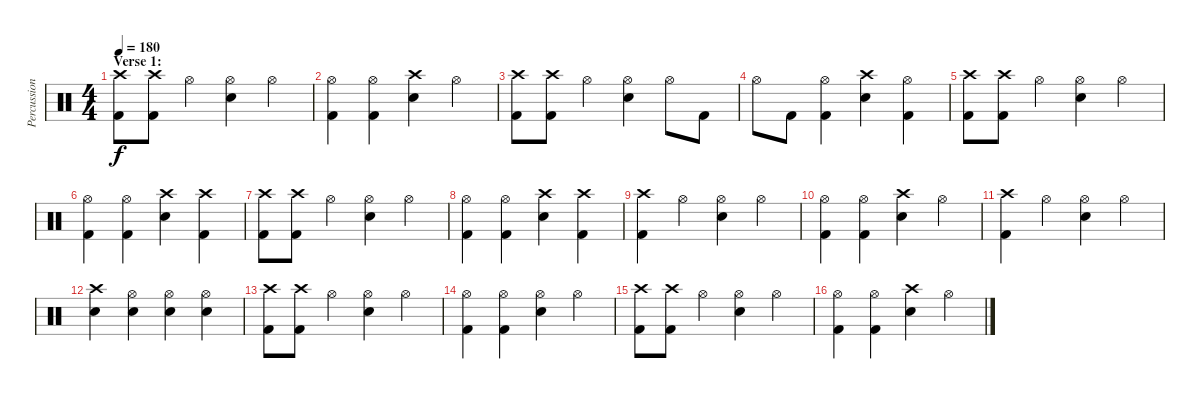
\track ("Percussion" "Percussion") {instrument percussion}
\staff {score}
\articulation defaults
\ts (4 4)
\section ("" "Verse 1:")
\tempo 180
\clef neutral
\ks c
("Crash high (hit)" "Kick (hit) 2").8{dy f} ("Crash high (hit)" "Kick (hit) 2").8 "Hi-Hat (open)".4 ("Hi-Hat (open)" "Snare (hit) 2").4 "Hi-Hat (open)".4 |
("Hi-Hat (open)" "Kick (hit) 2").4 ("Hi-Hat (open)" "Kick (hit) 2").4 ("Crash high (hit)" "Snare (hit) 2").4 "Hi-Hat (open)".4 |
("Crash high (hit)" "Kick (hit) 2").8 ("Crash high (hit)" "Kick (hit) 2").8 "Hi-Hat (open)".4 ("Hi-Hat (open)" "Snare (hit) 2").4 "Hi-Hat (open)".8 "Kick (hit) 2".8 |
"Hi-Hat (open)".8 "Kick (hit) 2".8 ("Hi-Hat (open)" "Kick (hit) 2").4 ("Crash high (hit)" "Snare (hit) 2").4 ("Hi-Hat (open)" "Kick (hit) 2").4 |
("Crash high (hit)" "Kick (hit) 2").8 ("Crash high (hit)" "Kick (hit) 2").8 "Hi-Hat (open)".4 ("Hi-Hat (open)" "Snare (hit) 2").4 "Hi-Hat (open)".4 |
("Hi-Hat (open)" "Kick (hit) 2").4 ("Hi-Hat (open)" "Kick (hit) 2").4 ("Crash high (hit)" "Snare (hit) 2").4 ("Crash high (hit)" "Kick (hit) 2").4 |
("Crash high (hit)" "Kick (hit) 2").8 ("Crash high (hit)" "Kick (hit) 2").8 "Hi-Hat (open)".4 ("Hi-Hat (open)" "Snare (hit) 2").4 "Hi-Hat (open)".4 |
("Hi-Hat (open)" "Kick (hit) 2").4 ("Hi-Hat (open)" "Kick (hit) 2").4 ("Crash high (hit)" "Snare (hit) 2").4 ("Crash high (hit)" "Kick (hit) 2").4 |
("Crash high (hit)" "Kick (hit) 2").4 "Hi-Hat (open)".4 ("Hi-Hat (open)" "Snare (hit) 2").4 "Hi-Hat (open)".4 |
("Hi-Hat (open)" "Kick (hit) 2").4 ("Hi-Hat (open)" "Kick (hit) 2").4 ("Crash high (hit)" "Snare (hit) 2").4 "Hi-Hat (open)".4 |
("Crash high (hit)" "Kick (hit) 2").4 "Hi-Hat (open)".4 ("Hi-Hat (open)" "Snare (hit) 2").4 "Hi-Hat (open)".4 |
("Crash high (hit)" "Snare (hit) 2").4 ("Hi-Hat (open)" "Snare (hit) 2").4 ("Hi-Hat (open)" "Snare (hit) 2").4 ("Hi-Hat (open)" "Snare (hit) 2").4 |
("Crash high (hit)" "Kick (hit) 2").8 ("Crash high (hit)" "Kick (hit) 2").8 "Hi-Hat (open)".4 ("Hi-Hat (open)" "Snare (hit) 2").4 "Hi-Hat (open)".4 |
("Hi-Hat (open)" "Kick (hit) 2").4 ("Hi-Hat (open)" "Kick (hit) 2").4 ("Hi-Hat (open)" "Snare (hit) 2").4 "Hi-Hat (open)".4 |
("Crash high (hit)" "Kick (hit) 2").8 ("Crash high (hit)" "Kick (hit) 2").8 "Hi-Hat (open)".4 ("Hi-Hat (open)" "Snare (hit) 2").4 "Hi-Hat (open)".4 |
("Hi-Hat (open)" "Kick (hit) 2").4 ("Hi-Hat (open)" "Kick (hit) 2").4 ("Crash high (hit)" "Snare (hit) 2").4 "Hi-Hat (open)".4
